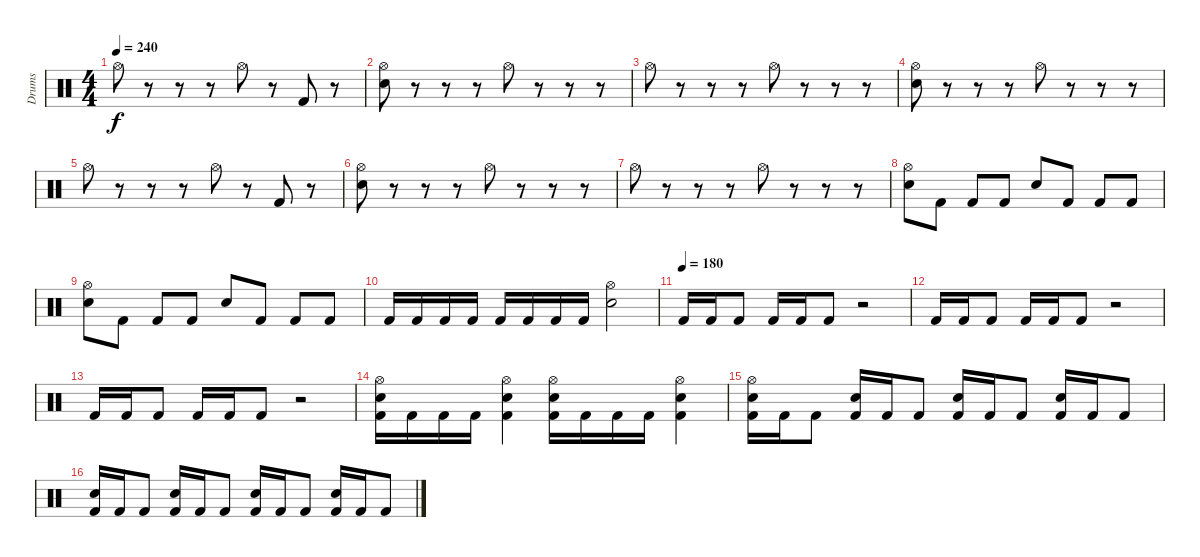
\track ("Drums" "Drums") {instrument percussion}
\staff {score}
\articulation defaults
\ts (4 4)
\tempo 240
\clef neutral
\ks c "Hi-Hat (open)".8{dy f}
r.8 r.8 r.8 "Hi-Hat (open)".8 r.8 "Kick (hit) 2".8 r.8 |
("Hi-Hat (open)" "Snare (hit) 2").8 r.8 r.8 r.8 "Hi-Hat (open)".8 r.8 r.8 r.8 |
"Hi-Hat (open)".8 r.8 r.8 r.8 "Hi-Hat (open)".8 r.8 r.8 r.8 |
("Hi-Hat (open)" "Snare (hit) 2").8 r.8 r.8 r.8 "Hi-Hat (open)".8 r.8 r.8 r.8 |
"Hi-Hat (open)".8 r.8 r.8 r.8 "Hi-Hat (open)".8 r.8 "Kick (hit) 2".8 r.8 |
("Hi-Hat (open)" "Snare (hit) 2").8 r.8 r.8 r.8 "Hi-Hat (open)".8 r.8 r.8 r.8 |
"Hi-Hat (open)".8 r.8 r.8 r.8 "Hi-Hat (open)".8 r.8 r.8 r.8 |
("Hi-Hat (open)" "Snare (hit) 2").8 "Kick (hit) 2".8 "Kick (hit) 2".8 "Kick (hit) 2".8 "Snare (hit) 2".8 "Kick (hit) 2".8 "Kick (hit) 2".8 "Kick (hit) 2".8 |
("Hi-Hat (open)" "Snare (hit) 2").8 "Kick (hit) 2".8 "Kick (hit) 2".8 "Kick (hit) 2".8 "Snare (hit) 2".8 "Kick (hit) 2".8 "Kick (hit) 2".8 "Kick (hit) 2".8 |
"Kick (hit) 2".16 "Kick (hit) 2".16 "Kick (hit) 2".16 "Kick (hit) 2".16 "Kick (hit) 2".16 "Kick (hit) 2".16 "Kick (hit) 2".16 "Kick (hit) 2".16 ("Hi-Hat (open)" "Snare (hit) 2").2 |
\tempo (180)
"Kick (hit) 2".16 "Kick (hit) 2".16 "Kick (hit) 2".8 "Kick (hit) 2".16 "Kick (hit) 2".16 "Kick (hit) 2".8 r.2 |
"Kick (hit) 2".16 "Kick (hit) 2".16 "Kick (hit) 2".8 "Kick (hit) 2".16 "Kick (hit) 2".16 "Kick (hit) 2".8 r.2 |
"Kick (hit) 2".16 "Kick (hit) 2".16 "Kick (hit) 2".8 "Kick (hit) 2".16 "Kick (hit) 2".16 "Kick (hit) 2".8 r.2 |
("Hi-Hat (open)" "Snare (hit) 2" "Kick (hit) 2").16 "Kick (hit) 2".16 "Kick (hit) 2".16 "Kick (hit) 2".16 ("Hi-Hat (open)" "Snare (hit) 2" "Kick (hit) 2").4 ("Hi-Hat (open)" "Snare (hit) 2" "Kick (hit) 2").16 "Kick (hit) 2".16 "Kick (hit) 2".16 "Kick (hit) 2".16 ("Hi-Hat (open)" "Snare (hit) 2" "Kick (hit) 2").4 |
("Hi-Hat (open)" "Snare (hit) 2" "Kick (hit) 2").16 "Kick (hit) 2".16 "Kick (hit) 2".8 ("Snare (hit) 2" "Kick (hit) 2").16 "Kick (hit) 2".16 "Kick (hit) 2".8 ("Snare (hit) 2" "Kick (hit) 2").16 "Kick (hit) 2".16 "Kick (hit) 2".8 ("Snare (hit) 2" "Kick (hit) 2").16 "Kick (hit) 2".16 "Kick (hit) 2".8 |
("Snare (hit) 2" "Kick (hit) 2").16 "Kick (hit) 2".16 "Kick (hit) 2".8 ("Snare (hit) 2" "Kick (hit) 2").16 "Kick (hit) 2".16 "Kick (hit) 2".8 ("Snare (hit) 2" "Kick (hit) 2").16 "Kick (hit) 2".16 "Kick (hit) 2".8 ("Snare (hit) 2" "Kick (hit) 2").16 "Kick (hit) 2".16 "Kick (hit) 2".8
